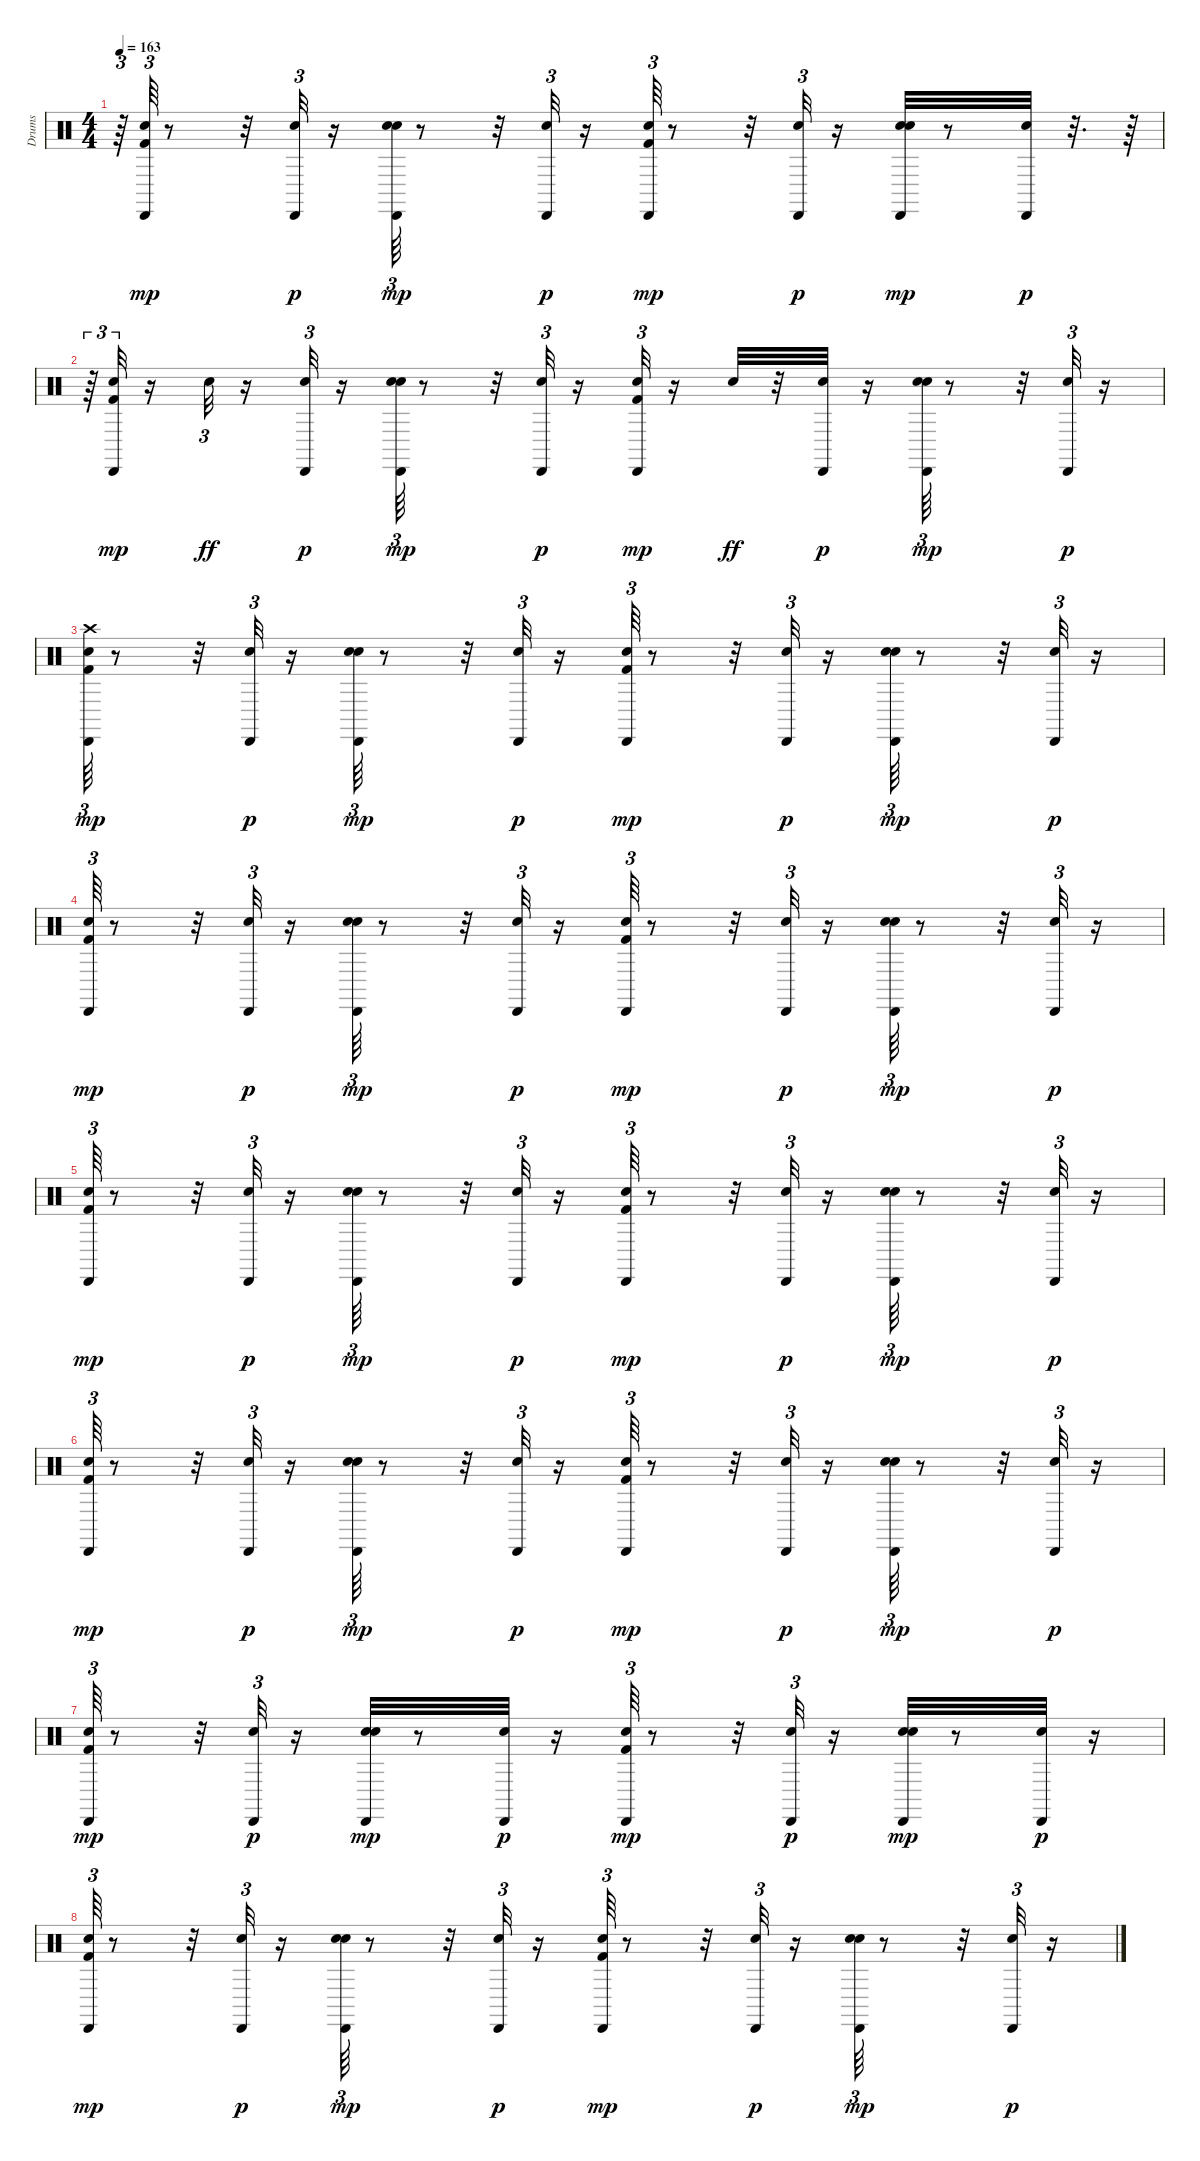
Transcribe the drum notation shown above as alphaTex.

\track ("Drums               " "Drums     ") {instrument percussion}
\staff {score}
\articulation defaults
\ts (4 4)
\tempo 163
\clef neutral
\ks c
r.64{tu (3 2) dy p} ("Kick (hit) 2" "Snare (hit) 2" "Cabasa (hit)").64{tu (3 2) dy mp} r.8 r.32 ("Snare (hit) 2" "Cabasa (hit)").32{tu (3 2) dy p} r.16 ("Snare (hit) 2" "Hand Clap (hit)" "Cabasa (hit)").64{tu (3 2) dy mp} r.8 r.32 ("Snare (hit) 2" "Cabasa (hit)").32{tu (3 2) dy p} r.16 ("Kick (hit) 2" "Snare (hit) 2" "Cabasa (hit)").64{tu (3 2) dy mp} r.8 r.32 ("Snare (hit) 2" "Cabasa (hit)").32{tu (3 2) dy p} r.16 ("Snare (hit) 2" "Hand Clap (hit)" "Cabasa (hit)").32{dy mp} r.8 ("Snare (hit) 2" "Cabasa (hit)").32{dy p} r.32{d} r.64 |
r.64{tu (3 2)} ("Kick (hit) 2" "Snare (hit) 2" "Cabasa (hit)").32{tu (3 2) dy mp} r.16 "Snare (hit) 2".32{tu (3 2) dy ff} r.16 ("Snare (hit) 2" "Cabasa (hit)").32{tu (3 2) dy p} r.16 ("Snare (hit) 2" "Hand Clap (hit)" "Cabasa (hit)").64{tu (3 2) dy mp} r.8 r.32 ("Snare (hit) 2" "Cabasa (hit)").32{tu (3 2) dy p} r.16 ("Kick (hit) 2" "Snare (hit) 2" "Cabasa (hit)").32{tu (3 2) dy mp} r.16 "Snare (hit) 2".32{dy ff} r.32 ("Snare (hit) 2" "Cabasa (hit)").32{dy p} r.16 ("Snare (hit) 2" "Hand Clap (hit)" "Cabasa (hit)").64{tu (3 2) dy mp} r.8 r.32 ("Snare (hit) 2" "Cabasa (hit)").32{tu (3 2) dy p} r.16 |
("Kick (hit) 2" "Snare (hit) 2" "Crash high (hit)" "Cabasa (hit)").64{tu (3 2) dy mp} r.8 r.32 ("Snare (hit) 2" "Cabasa (hit)").32{tu (3 2) dy p} r.16 ("Snare (hit) 2" "Hand Clap (hit)" "Cabasa (hit)").64{tu (3 2) dy mp} r.8 r.32 ("Snare (hit) 2" "Cabasa (hit)").32{tu (3 2) dy p} r.16 ("Kick (hit) 2" "Snare (hit) 2" "Cabasa (hit)").64{tu (3 2) dy mp} r.8 r.32 ("Snare (hit) 2" "Cabasa (hit)").32{tu (3 2) dy p} r.16 ("Snare (hit) 2" "Hand Clap (hit)" "Cabasa (hit)").64{tu (3 2) dy mp} r.8 r.32 ("Snare (hit) 2" "Cabasa (hit)").32{tu (3 2) dy p} r.16 |
("Kick (hit) 2" "Snare (hit) 2" "Cabasa (hit)").64{tu (3 2) dy mp} r.8 r.32 ("Snare (hit) 2" "Cabasa (hit)").32{tu (3 2) dy p} r.16 ("Snare (hit) 2" "Hand Clap (hit)" "Cabasa (hit)").64{tu (3 2) dy mp} r.8 r.32 ("Snare (hit) 2" "Cabasa (hit)").32{tu (3 2) dy p} r.16 ("Kick (hit) 2" "Snare (hit) 2" "Cabasa (hit)").64{tu (3 2) dy mp} r.8 r.32 ("Snare (hit) 2" "Cabasa (hit)").32{tu (3 2) dy p} r.16 ("Snare (hit) 2" "Hand Clap (hit)" "Cabasa (hit)").64{tu (3 2) dy mp} r.8 r.32 ("Snare (hit) 2" "Cabasa (hit)").32{tu (3 2) dy p} r.16 |
("Kick (hit) 2" "Snare (hit) 2" "Cabasa (hit)").64{tu (3 2) dy mp} r.8 r.32 ("Snare (hit) 2" "Cabasa (hit)").32{tu (3 2) dy p} r.16 ("Snare (hit) 2" "Hand Clap (hit)" "Cabasa (hit)").64{tu (3 2) dy mp} r.8 r.32 ("Snare (hit) 2" "Cabasa (hit)").32{tu (3 2) dy p} r.16 ("Kick (hit) 2" "Snare (hit) 2" "Cabasa (hit)").64{tu (3 2) dy mp} r.8 r.32 ("Snare (hit) 2" "Cabasa (hit)").32{tu (3 2) dy p} r.16 ("Snare (hit) 2" "Hand Clap (hit)" "Cabasa (hit)").64{tu (3 2) dy mp} r.8 r.32 ("Snare (hit) 2" "Cabasa (hit)").32{tu (3 2) dy p} r.16 |
("Kick (hit) 2" "Snare (hit) 2" "Cabasa (hit)").64{tu (3 2) dy mp} r.8 r.32 ("Snare (hit) 2" "Cabasa (hit)").32{tu (3 2) dy p} r.16 ("Snare (hit) 2" "Hand Clap (hit)" "Cabasa (hit)").64{tu (3 2) dy mp} r.8 r.32 ("Snare (hit) 2" "Cabasa (hit)").32{tu (3 2) dy p} r.16 ("Kick (hit) 2" "Snare (hit) 2" "Cabasa (hit)").64{tu (3 2) dy mp} r.8 r.32 ("Snare (hit) 2" "Cabasa (hit)").32{tu (3 2) dy p} r.16 ("Snare (hit) 2" "Hand Clap (hit)" "Cabasa (hit)").64{tu (3 2) dy mp} r.8 r.32 ("Snare (hit) 2" "Cabasa (hit)").32{tu (3 2) dy p} r.16 |
("Kick (hit) 2" "Snare (hit) 2" "Cabasa (hit)").64{tu (3 2) dy mp} r.8 r.32 ("Snare (hit) 2" "Cabasa (hit)").32{tu (3 2) dy p} r.16 ("Snare (hit) 2" "Hand Clap (hit)" "Cabasa (hit)").32{dy mp} r.8 ("Snare (hit) 2" "Cabasa (hit)").32{dy p} r.16 ("Kick (hit) 2" "Snare (hit) 2" "Cabasa (hit)").64{tu (3 2) dy mp} r.8 r.32 ("Snare (hit) 2" "Cabasa (hit)").32{tu (3 2) dy p} r.16 ("Snare (hit) 2" "Hand Clap (hit)" "Cabasa (hit)").32{dy mp} r.8 ("Snare (hit) 2" "Cabasa (hit)").32{dy p} r.16 |
("Kick (hit) 2" "Snare (hit) 2" "Cabasa (hit)").64{tu (3 2) dy mp} r.8 r.32 ("Snare (hit) 2" "Cabasa (hit)").32{tu (3 2) dy p} r.16 ("Snare (hit) 2" "Hand Clap (hit)" "Cabasa (hit)").64{tu (3 2) dy mp} r.8 r.32 ("Snare (hit) 2" "Cabasa (hit)").32{tu (3 2) dy p} r.16 ("Kick (hit) 2" "Snare (hit) 2" "Cabasa (hit)").64{tu (3 2) dy mp} r.8 r.32 ("Snare (hit) 2" "Cabasa (hit)").32{tu (3 2) dy p} r.16 ("Snare (hit) 2" "Hand Clap (hit)" "Cabasa (hit)").64{tu (3 2) dy mp} r.8 r.32 ("Snare (hit) 2" "Cabasa (hit)").32{tu (3 2) dy p} r.16
